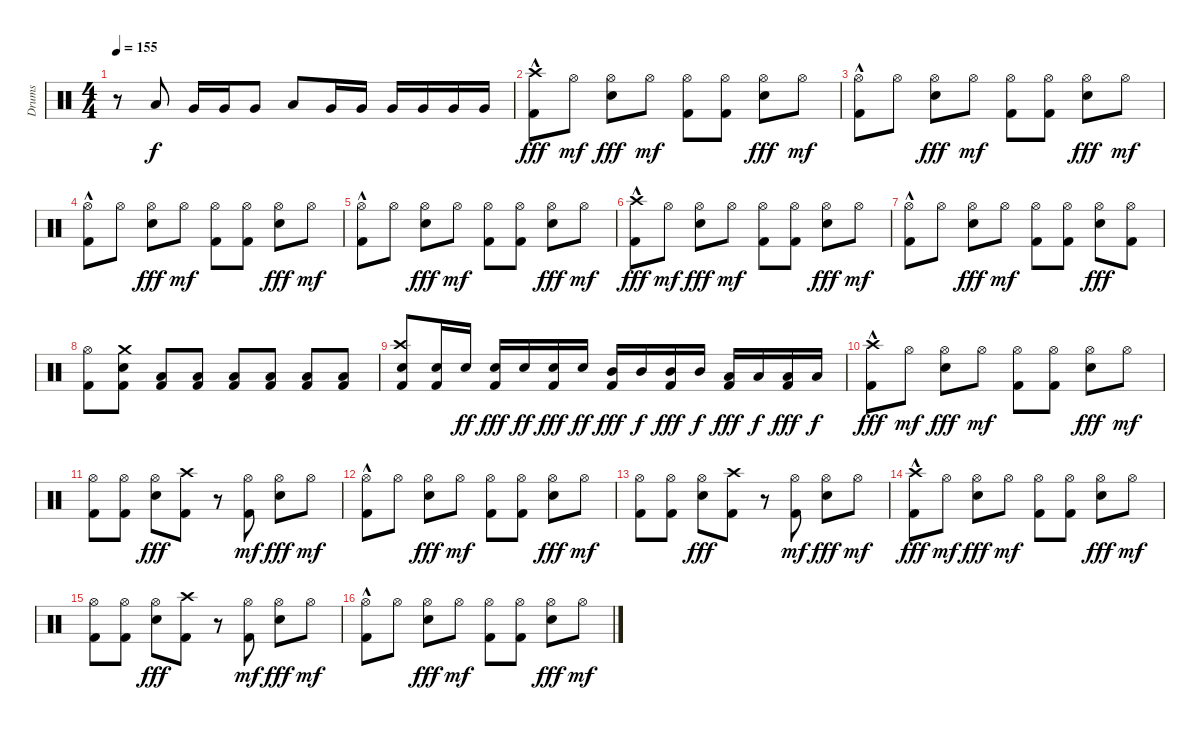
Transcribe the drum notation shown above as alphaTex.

\track ("Drums" "Drums") {instrument percussion}
\staff {score}
\articulation defaults
\ts (4 4)
\tempo 155
\clef neutral
\ks c
r.8{dy fff} "Low Tom (hit)".8{dy f} "Very Low Tom (hit)".16 "Very Low Tom (hit)".16 "Very Low Tom (hit)".8 "Low Tom (hit)".8 "Very Low Tom (hit)".16 "Very Low Tom (hit)".16 "Very Low Tom (hit)".16 "Very Low Tom (hit)".16 "Very Low Tom (hit)".16 "Very Low Tom (hit)".16 |
("Kick (hit) 2"{hac} "Crash high (hit)").8{dy fff} "Hi-Hat (open)".8{dy mf} ("Snare (hit) 2" "Hi-Hat (open)").8{dy fff} "Hi-Hat (open)".8{dy mf} ("Kick (hit) 2" "Hi-Hat (open)").8 ("Kick (hit) 2" "Hi-Hat (open)").8 ("Snare (hit) 2" "Hi-Hat (open)").8{dy fff} "Hi-Hat (open)".8{dy mf} |
("Kick (hit) 2"{hac} "Hi-Hat (open)").8 "Hi-Hat (open)".8 ("Snare (hit) 2" "Hi-Hat (open)").8{dy fff} "Hi-Hat (open)".8{dy mf} ("Kick (hit) 2" "Hi-Hat (open)").8 ("Kick (hit) 2" "Hi-Hat (open)").8 ("Snare (hit) 2" "Hi-Hat (open)").8{dy fff} "Hi-Hat (open)".8{dy mf} |
("Kick (hit) 2"{hac} "Hi-Hat (open)").8 "Hi-Hat (open)".8 ("Snare (hit) 2" "Hi-Hat (open)").8{dy fff} "Hi-Hat (open)".8{dy mf} ("Kick (hit) 2" "Hi-Hat (open)").8 ("Kick (hit) 2" "Hi-Hat (open)").8 ("Snare (hit) 2" "Hi-Hat (open)").8{dy fff} "Hi-Hat (open)".8{dy mf} |
("Kick (hit) 2"{hac} "Hi-Hat (open)").8 "Hi-Hat (open)".8 ("Snare (hit) 2" "Hi-Hat (open)").8{dy fff} "Hi-Hat (open)".8{dy mf} ("Kick (hit) 2" "Hi-Hat (open)").8 ("Kick (hit) 2" "Hi-Hat (open)").8 ("Snare (hit) 2" "Hi-Hat (open)").8{dy fff} "Hi-Hat (open)".8{dy mf} |
("Kick (hit) 2"{hac} "Crash high (hit)").8{dy fff} "Hi-Hat (open)".8{dy mf} ("Snare (hit) 2" "Hi-Hat (open)").8{dy fff} "Hi-Hat (open)".8{dy mf} ("Kick (hit) 2" "Hi-Hat (open)").8 ("Kick (hit) 2" "Hi-Hat (open)").8 ("Snare (hit) 2" "Hi-Hat (open)").8{dy fff} "Hi-Hat (open)".8{dy mf} |
("Kick (hit) 2"{hac} "Hi-Hat (open)").8 "Hi-Hat (open)".8 ("Snare (hit) 2" "Hi-Hat (open)").8{dy fff} "Hi-Hat (open)".8{dy mf} ("Kick (hit) 2" "Hi-Hat (open)").8 ("Kick (hit) 2" "Hi-Hat (open)").8 ("Snare (hit) 2" "Hi-Hat (open)").8{dy fff} ("Hi-Hat (open)" "Kick (hit) 2").8 |
("Kick (hit) 2" "Hi-Hat (open)").8 ("Kick (hit) 2" "Snare (hit) 2" "Crash medium (hit)").8 ("Kick (hit) 2" "Low Tom (hit)").8 ("Kick (hit) 2" "Low Tom (hit)").8 ("Kick (hit) 2" "Low Tom (hit)").8 ("Kick (hit) 2" "Low Tom (hit)").8 ("Kick (hit) 2" "Low Tom (hit)").8 ("Kick (hit) 2" "Low Tom (hit)").8 |
("Kick (hit) 2" "Snare (hit) 2" "Crash high (hit)").8 ("Kick (hit) 2" "Snare (hit) 2").16 "Snare (hit) 2".16{dy ff} ("Kick (hit) 2" "Snare (hit) 2").16{dy fff} "Snare (hit) 2".16{dy ff} ("Kick (hit) 2" "Snare (hit) 2").16{dy fff} "Snare (hit) 2".16{dy ff} ("Mid Tom (hit)" "Kick (hit) 2").16{dy fff} "Mid Tom (hit)".16{dy f} ("Mid Tom (hit)" "Kick (hit) 2").16{dy fff} "Mid Tom (hit)".16{dy f} ("Low Tom (hit)" "Kick (hit) 2").16{dy fff} "Low Tom (hit)".16{dy f} ("Low Tom (hit)" "Kick (hit) 2").16{dy fff} "Low Tom (hit)".16{dy f} |
("Kick (hit) 2"{hac} "Crash high (hit)").8{dy fff} "Hi-Hat (open)".8{dy mf} ("Snare (hit) 2" "Hi-Hat (open)").8{dy fff} "Hi-Hat (open)".8{dy mf} ("Kick (hit) 2" "Hi-Hat (open)").8 ("Kick (hit) 2" "Hi-Hat (open)").8 ("Snare (hit) 2" "Hi-Hat (open)").8{dy fff} "Hi-Hat (open)".8{dy mf} |
("Kick (hit) 2" "Hi-Hat (open)").8 ("Kick (hit) 2" "Hi-Hat (open)").8 ("Snare (hit) 2" "Hi-Hat (open)").8{dy fff} ("Crash high (hit)" "Kick (hit) 2").8 r.8 ("Kick (hit) 2" "Hi-Hat (open)").8{dy mf} ("Snare (hit) 2" "Hi-Hat (open)").8{dy fff} "Hi-Hat (open)".8{dy mf} |
("Kick (hit) 2"{hac} "Hi-Hat (open)").8 "Hi-Hat (open)".8 ("Snare (hit) 2" "Hi-Hat (open)").8{dy fff} "Hi-Hat (open)".8{dy mf} ("Kick (hit) 2" "Hi-Hat (open)").8 ("Kick (hit) 2" "Hi-Hat (open)").8 ("Snare (hit) 2" "Hi-Hat (open)").8{dy fff} "Hi-Hat (open)".8{dy mf} |
("Kick (hit) 2" "Hi-Hat (open)").8 ("Kick (hit) 2" "Hi-Hat (open)").8 ("Snare (hit) 2" "Hi-Hat (open)").8{dy fff} ("Crash high (hit)" "Kick (hit) 2").8 r.8 ("Kick (hit) 2" "Hi-Hat (open)").8{dy mf} ("Snare (hit) 2" "Hi-Hat (open)").8{dy fff} "Hi-Hat (open)".8{dy mf} |
("Kick (hit) 2"{hac} "Crash high (hit)").8{dy fff} "Hi-Hat (open)".8{dy mf} ("Snare (hit) 2" "Hi-Hat (open)").8{dy fff} "Hi-Hat (open)".8{dy mf} ("Kick (hit) 2" "Hi-Hat (open)").8 ("Kick (hit) 2" "Hi-Hat (open)").8 ("Snare (hit) 2" "Hi-Hat (open)").8{dy fff} "Hi-Hat (open)".8{dy mf} |
("Kick (hit) 2" "Hi-Hat (open)").8 ("Kick (hit) 2" "Hi-Hat (open)").8 ("Snare (hit) 2" "Hi-Hat (open)").8{dy fff} ("Crash high (hit)" "Kick (hit) 2").8 r.8 ("Kick (hit) 2" "Hi-Hat (open)").8{dy mf} ("Snare (hit) 2" "Hi-Hat (open)").8{dy fff} "Hi-Hat (open)".8{dy mf} |
("Kick (hit) 2"{hac} "Hi-Hat (open)").8 "Hi-Hat (open)".8 ("Snare (hit) 2" "Hi-Hat (open)").8{dy fff} "Hi-Hat (open)".8{dy mf} ("Kick (hit) 2" "Hi-Hat (open)").8 ("Kick (hit) 2" "Hi-Hat (open)").8 ("Snare (hit) 2" "Hi-Hat (open)").8{dy fff} "Hi-Hat (open)".8{dy mf}
